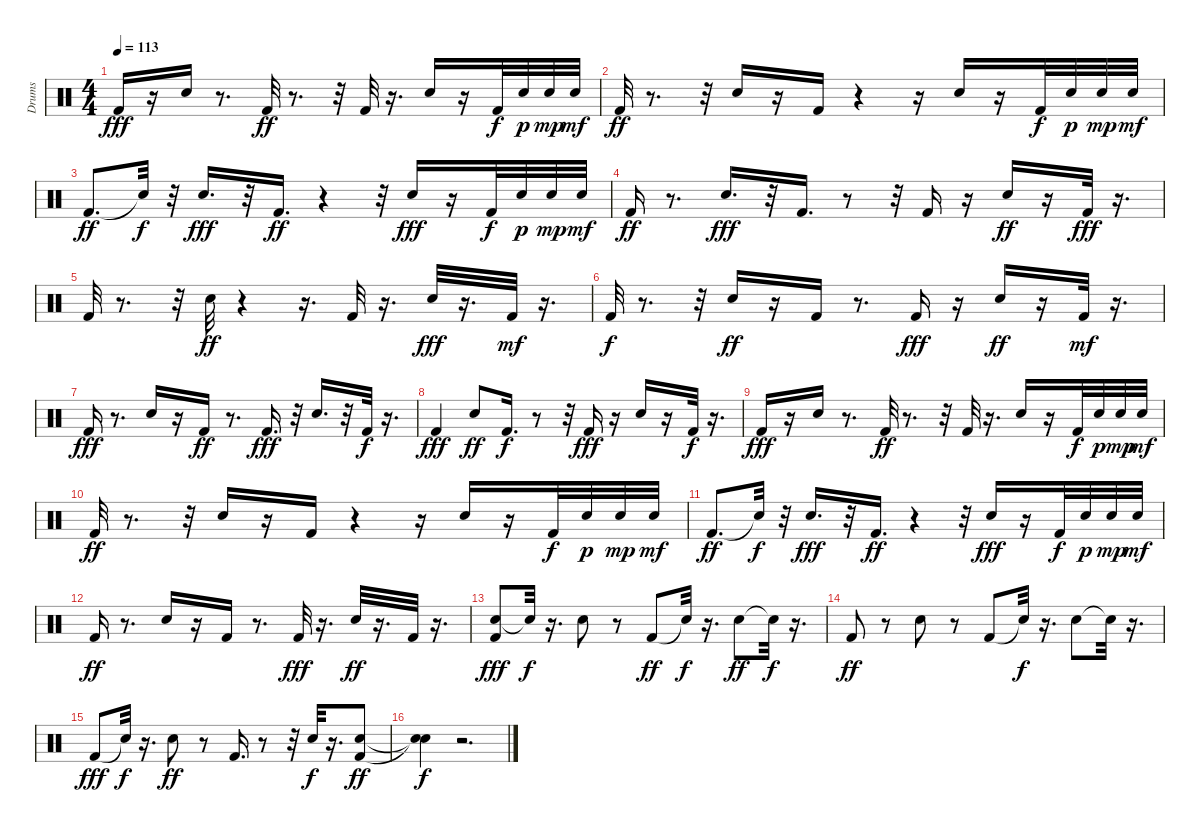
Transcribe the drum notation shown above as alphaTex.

\track ("Drums" "Drums") {instrument percussion}
\staff {score}
\articulation defaults
\ts (4 4)
\tempo 113
\clef neutral
\ks c "Kick (hit) 2".16{dy fff}
r.16 "Snare (hit) 2".16 r.8{d} "Kick (hit) 2".32{dy ff} r.8{d} r.32 "Kick (hit) 2".32 r.16{d} "Snare (hit) 2".16 r.16 "Kick (hit) 2".32{dy f} "Snare (hit) 2".32{dy p} "Snare (hit) 2".32{dy mp} "Snare (hit) 2".32{dy mf} |
"Kick (hit) 2".32{dy ff} r.8{d} r.32 "Snare (hit) 2".16 r.16 "Kick (hit) 2".16 r.4 r.16 "Snare (hit) 2".16 r.16 "Kick (hit) 2".32{dy f} "Snare (hit) 2".32{dy p} "Snare (hit) 2".32{dy mp} "Snare (hit) 2".32{dy mf} |
"Kick (hit) 2".8{d dy ff} "Snare (hit)"{t}.32{dy f} r.32 "Snare (hit) 2".16{d dy fff} r.32 "Kick (hit) 2".16{d dy ff} r.4 r.32 "Snare (hit) 2".16{dy fff} r.16 "Kick (hit) 2".32{dy f} "Snare (hit) 2".32{dy p} "Snare (hit) 2".32{dy mp} "Snare (hit) 2".32{dy mf} |
"Kick (hit) 2".16{dy ff} r.8{d} "Snare (hit) 2".16{d dy fff} r.32 "Kick (hit) 2".16{d} r.8 r.32 "Kick (hit) 2".16 r.16 "Snare (hit) 2".16{dy ff} r.16 "Kick (hit) 2".32{dy fff} r.16{d} |
"Kick (hit) 2".32 r.8{d} r.32 "Snare (hit) 2".32{dy ff} r.4 r.16{d} "Kick (hit) 2".32 r.16{d} "Snare (hit) 2".32{dy fff} r.16{d} "Kick (hit) 2".32{dy mf} r.16{d} |
"Kick (hit) 2".32{dy f} r.8{d} r.32 "Snare (hit) 2".16{dy ff} r.16 "Kick (hit) 2".16 r.8{d} "Kick (hit) 2".16{dy fff} r.16 "Snare (hit) 2".16{dy ff} r.16 "Kick (hit) 2".32{dy mf} r.16{d} |
"Kick (hit) 2".16{dy fff} r.8{d} "Snare (hit) 2".16 r.16 "Kick (hit) 2".16{dy ff} r.8{d} "Kick (hit) 2".16{d dy fff} r.32 "Snare (hit) 2".16{d} r.32 "Kick (hit) 2".32{dy f} r.16{d} |
"Kick (hit) 2".4{dy fff} "Snare (hit) 2".8{dy ff} "Kick (hit) 2".16{d dy f} r.8 r.32 "Kick (hit) 2".16{dy fff} r.16 "Snare (hit) 2".16 r.16 "Kick (hit) 2".32{dy f} r.16{d} |
"Kick (hit) 2".16{dy fff} r.16 "Snare (hit) 2".16 r.8{d} "Kick (hit) 2".32{dy ff} r.8{d} r.32 "Kick (hit) 2".32 r.16{d} "Snare (hit) 2".16 r.16 "Kick (hit) 2".32{dy f} "Snare (hit) 2".32{dy p} "Snare (hit) 2".32{dy mp} "Snare (hit) 2".32{dy mf} |
"Kick (hit) 2".32{dy ff} r.8{d} r.32 "Snare (hit) 2".16 r.16 "Kick (hit) 2".16 r.4 r.16 "Snare (hit) 2".16 r.16 "Kick (hit) 2".32{dy f} "Snare (hit) 2".32{dy p} "Snare (hit) 2".32{dy mp} "Snare (hit) 2".32{dy mf} |
"Kick (hit) 2".8{d dy ff} "Snare (hit)"{t}.32{dy f} r.32 "Snare (hit) 2".16{d dy fff} r.32 "Kick (hit) 2".16{d dy ff} r.4 r.32 "Snare (hit) 2".16{dy fff} r.16 "Kick (hit) 2".32{dy f} "Snare (hit) 2".32{dy p} "Snare (hit) 2".32{dy mp} "Snare (hit) 2".32{dy mf} |
"Kick (hit) 2".16{dy ff} r.8{d} "Snare (hit) 2".16 r.16 "Kick (hit) 2".16 r.8{d} "Kick (hit) 2".32{dy fff} r.16{d} "Snare (hit) 2".32{dy ff} r.16{d} "Kick (hit) 2".32 r.16{d} |
("Snare (hit) 2" "Kick (hit) 2").8{dy fff} "Snare (hit)"{t}.32{dy f} r.16{d} "Snare (hit) 2".8 r.8 "Kick (hit) 2".8{dy ff} "Snare (hit)"{t}.32{dy f} r.16{d} "Snare (hit) 2".8{dy ff} "Snare (hit)"{t}.32{dy f} r.16{d} |
"Kick (hit) 2".8{dy ff} r.8 "Snare (hit) 2".8 r.8 "Kick (hit) 2".8 "Snare (hit)"{t}.32{dy f} r.16{d} "Snare (hit) 2".8 "Snare (hit)"{t}.32 r.16{d} |
"Kick (hit) 2".8{dy fff} "Snare (hit)"{t}.32{dy f} r.16{d} "Snare (hit) 2".8{dy ff} r.8 "Kick (hit) 2".16{d} r.8 r.32 "Snare (hit) 2".32{dy f} r.16{d} ("Snare (hit) 2" "Kick (hit) 2").8{dy ff} |
("Snare (hit)"{t} "Snare (hit)"{t}).4{dy f} r.2{d}
